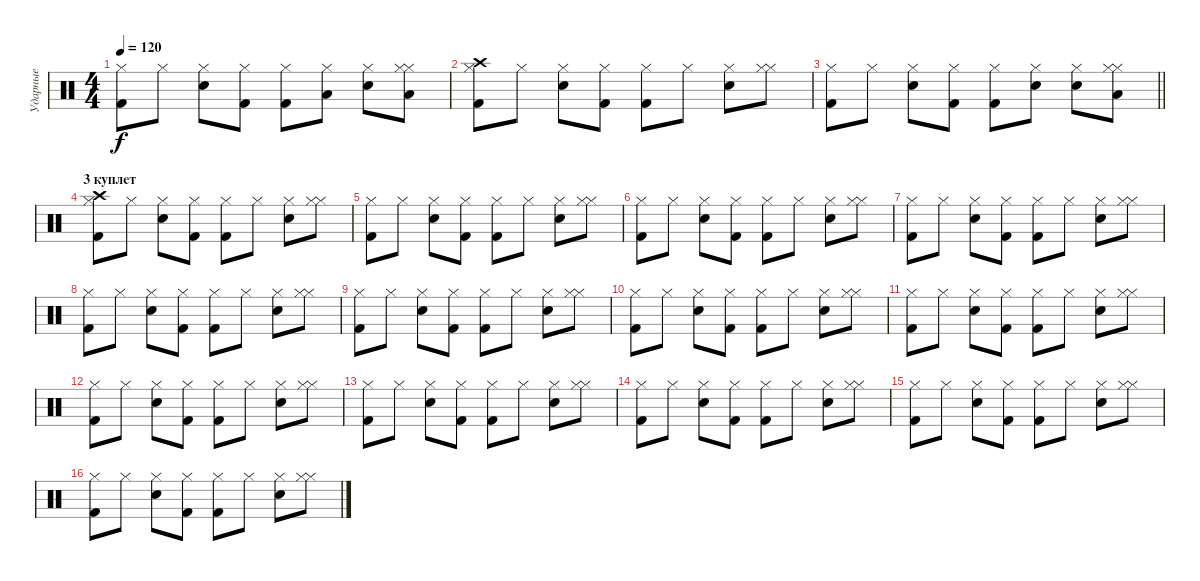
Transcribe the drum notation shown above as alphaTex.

\track ("Ударные" "Ударные") {instrument percussion}
\staff {score}
\articulation defaults
\ts (4 4)
\tempo 120
\clef neutral
\ks c
("Kick (hit) 2" "Hi-Hat (closed)").8{dy f} "Hi-Hat (closed)".8 ("Electric Snare (hit)" "Hi-Hat (closed)").8 ("Kick (hit) 2" "Hi-Hat (closed)").8 ("Kick (hit) 2" "Hi-Hat (closed)").8 ("Hi-Hat (closed)" "Low Tom (hit)").8 ("Electric Snare (hit)" "Hi-Hat (closed)").8 ("Hi-Hat (closed)" "Hi-Hat (closed)" "Low Floor Tom (hit)").8 |
("Kick (hit) 2" "Hi-Hat (closed)" "Crash high (hit)").8 "Hi-Hat (closed)".8 ("Electric Snare (hit)" "Hi-Hat (closed)").8 ("Kick (hit) 2" "Hi-Hat (closed)").8 ("Kick (hit) 2" "Hi-Hat (closed)").8 "Hi-Hat (closed)".8 ("Electric Snare (hit)" "Hi-Hat (closed)").8 ("Hi-Hat (closed)" "Hi-Hat (closed)").8 |
\barLineRight lightlight
("Kick (hit) 2" "Hi-Hat (closed)").8 "Hi-Hat (closed)".8 ("Electric Snare (hit)" "Hi-Hat (closed)").8 ("Kick (hit) 2" "Hi-Hat (closed)").8 ("Kick (hit) 2" "Hi-Hat (closed)").8 ("Hi-Hat (closed)" "Electric Snare (hit)").8 ("Electric Snare (hit)" "Hi-Hat (closed)").8 ("Hi-Hat (closed)" "Hi-Hat (closed)" "Low Tom (hit)").8 |
\section ("" "3 куплет")
("Kick (hit) 2" "Hi-Hat (closed)" "Crash high (hit)").8 "Hi-Hat (closed)".8 ("Electric Snare (hit)" "Hi-Hat (closed)").8 ("Kick (hit) 2" "Hi-Hat (closed)").8 ("Kick (hit) 2" "Hi-Hat (closed)").8 "Hi-Hat (closed)".8 ("Electric Snare (hit)" "Hi-Hat (closed)").8 ("Hi-Hat (closed)" "Hi-Hat (closed)").8 |
("Kick (hit) 2" "Hi-Hat (closed)").8 "Hi-Hat (closed)".8 ("Electric Snare (hit)" "Hi-Hat (closed)").8 ("Kick (hit) 2" "Hi-Hat (closed)").8 ("Kick (hit) 2" "Hi-Hat (closed)").8 "Hi-Hat (closed)".8 ("Electric Snare (hit)" "Hi-Hat (closed)").8 ("Hi-Hat (closed)" "Hi-Hat (closed)").8 |
("Kick (hit) 2" "Hi-Hat (closed)").8 "Hi-Hat (closed)".8 ("Electric Snare (hit)" "Hi-Hat (closed)").8 ("Kick (hit) 2" "Hi-Hat (closed)").8 ("Kick (hit) 2" "Hi-Hat (closed)").8 "Hi-Hat (closed)".8 ("Electric Snare (hit)" "Hi-Hat (closed)").8 ("Hi-Hat (closed)" "Hi-Hat (closed)").8 |
("Kick (hit) 2" "Hi-Hat (closed)").8 "Hi-Hat (closed)".8 ("Electric Snare (hit)" "Hi-Hat (closed)").8 ("Kick (hit) 2" "Hi-Hat (closed)").8 ("Kick (hit) 2" "Hi-Hat (closed)").8 "Hi-Hat (closed)".8 ("Electric Snare (hit)" "Hi-Hat (closed)").8 ("Hi-Hat (closed)" "Hi-Hat (closed)").8 |
("Kick (hit) 2" "Hi-Hat (closed)").8 "Hi-Hat (closed)".8 ("Electric Snare (hit)" "Hi-Hat (closed)").8 ("Kick (hit) 2" "Hi-Hat (closed)").8 ("Kick (hit) 2" "Hi-Hat (closed)").8 "Hi-Hat (closed)".8 ("Electric Snare (hit)" "Hi-Hat (closed)").8 ("Hi-Hat (closed)" "Hi-Hat (closed)").8 |
("Kick (hit) 2" "Hi-Hat (closed)").8 "Hi-Hat (closed)".8 ("Electric Snare (hit)" "Hi-Hat (closed)").8 ("Kick (hit) 2" "Hi-Hat (closed)").8 ("Kick (hit) 2" "Hi-Hat (closed)").8 "Hi-Hat (closed)".8 ("Electric Snare (hit)" "Hi-Hat (closed)").8 ("Hi-Hat (closed)" "Hi-Hat (closed)").8 |
("Kick (hit) 2" "Hi-Hat (closed)").8 "Hi-Hat (closed)".8 ("Electric Snare (hit)" "Hi-Hat (closed)").8 ("Kick (hit) 2" "Hi-Hat (closed)").8 ("Kick (hit) 2" "Hi-Hat (closed)").8 "Hi-Hat (closed)".8 ("Electric Snare (hit)" "Hi-Hat (closed)").8 ("Hi-Hat (closed)" "Hi-Hat (closed)").8 |
("Kick (hit) 2" "Hi-Hat (closed)").8 "Hi-Hat (closed)".8 ("Electric Snare (hit)" "Hi-Hat (closed)").8 ("Kick (hit) 2" "Hi-Hat (closed)").8 ("Kick (hit) 2" "Hi-Hat (closed)").8 "Hi-Hat (closed)".8 ("Electric Snare (hit)" "Hi-Hat (closed)").8 ("Hi-Hat (closed)" "Hi-Hat (closed)").8 |
("Kick (hit) 2" "Hi-Hat (closed)").8 "Hi-Hat (closed)".8 ("Electric Snare (hit)" "Hi-Hat (closed)").8 ("Kick (hit) 2" "Hi-Hat (closed)").8 ("Kick (hit) 2" "Hi-Hat (closed)").8 "Hi-Hat (closed)".8 ("Electric Snare (hit)" "Hi-Hat (closed)").8 ("Hi-Hat (closed)" "Hi-Hat (closed)").8 |
("Kick (hit) 2" "Hi-Hat (closed)").8 "Hi-Hat (closed)".8 ("Electric Snare (hit)" "Hi-Hat (closed)").8 ("Kick (hit) 2" "Hi-Hat (closed)").8 ("Kick (hit) 2" "Hi-Hat (closed)").8 "Hi-Hat (closed)".8 ("Electric Snare (hit)" "Hi-Hat (closed)").8 ("Hi-Hat (closed)" "Hi-Hat (closed)").8 |
("Kick (hit) 2" "Hi-Hat (closed)").8 "Hi-Hat (closed)".8 ("Electric Snare (hit)" "Hi-Hat (closed)").8 ("Kick (hit) 2" "Hi-Hat (closed)").8 ("Kick (hit) 2" "Hi-Hat (closed)").8 "Hi-Hat (closed)".8 ("Electric Snare (hit)" "Hi-Hat (closed)").8 ("Hi-Hat (closed)" "Hi-Hat (closed)").8 |
("Kick (hit) 2" "Hi-Hat (closed)").8 "Hi-Hat (closed)".8 ("Electric Snare (hit)" "Hi-Hat (closed)").8 ("Kick (hit) 2" "Hi-Hat (closed)").8 ("Kick (hit) 2" "Hi-Hat (closed)").8 "Hi-Hat (closed)".8 ("Electric Snare (hit)" "Hi-Hat (closed)").8 ("Hi-Hat (closed)" "Hi-Hat (closed)").8 |
("Kick (hit) 2" "Hi-Hat (closed)").8 "Hi-Hat (closed)".8 ("Electric Snare (hit)" "Hi-Hat (closed)").8 ("Kick (hit) 2" "Hi-Hat (closed)").8 ("Kick (hit) 2" "Hi-Hat (closed)").8 "Hi-Hat (closed)".8 ("Electric Snare (hit)" "Hi-Hat (closed)").8 ("Hi-Hat (closed)" "Hi-Hat (closed)").8
